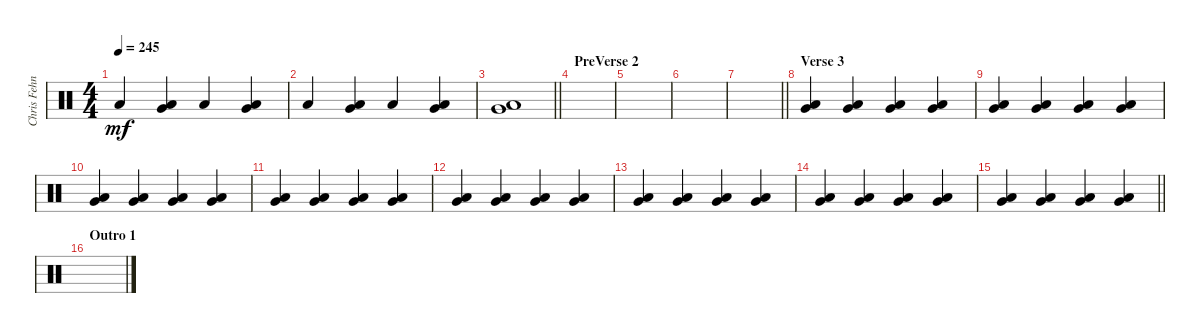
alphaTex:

\track ("Chris Fehn" "Chris Fehn") {instrument percussion}
\staff {score}
\articulation defaults
\ts (4 4)
\tempo 245
\clef neutral
\ks c "Low Floor Tom (hit)".4{dy mf}
("Very Low Tom (hit)" "Low Floor Tom (hit)").4 "Low Floor Tom (hit)".4 ("Very Low Tom (hit)" "Low Floor Tom (hit)").4 |
"Low Floor Tom (hit)".4 ("Very Low Tom (hit)" "Low Floor Tom (hit)").4 "Low Floor Tom (hit)".4 ("Very Low Tom (hit)" "Low Floor Tom (hit)").4 |
\barLineRight lightlight
("Very Low Tom (hit)" "Low Floor Tom (hit)").1 |
\section ("" "PreVerse 2")
|
|
|
\barLineRight lightlight
|
\section ("" "Verse 3")
("Very Low Tom (hit)" "Low Floor Tom (hit)").4 ("Very Low Tom (hit)" "Low Floor Tom (hit)").4 ("Very Low Tom (hit)" "Low Floor Tom (hit)").4 ("Very Low Tom (hit)" "Low Floor Tom (hit)").4 |
("Very Low Tom (hit)" "Low Floor Tom (hit)").4 ("Very Low Tom (hit)" "Low Floor Tom (hit)").4 ("Very Low Tom (hit)" "Low Floor Tom (hit)").4 ("Very Low Tom (hit)" "Low Floor Tom (hit)").4 |
("Very Low Tom (hit)" "Low Floor Tom (hit)").4 ("Very Low Tom (hit)" "Low Floor Tom (hit)").4 ("Very Low Tom (hit)" "Low Floor Tom (hit)").4 ("Very Low Tom (hit)" "Low Floor Tom (hit)").4 |
("Very Low Tom (hit)" "Low Floor Tom (hit)").4 ("Very Low Tom (hit)" "Low Floor Tom (hit)").4 ("Very Low Tom (hit)" "Low Floor Tom (hit)").4 ("Very Low Tom (hit)" "Low Floor Tom (hit)").4 |
("Very Low Tom (hit)" "Low Floor Tom (hit)").4 ("Very Low Tom (hit)" "Low Floor Tom (hit)").4 ("Very Low Tom (hit)" "Low Floor Tom (hit)").4 ("Very Low Tom (hit)" "Low Floor Tom (hit)").4 |
("Very Low Tom (hit)" "Low Floor Tom (hit)").4 ("Very Low Tom (hit)" "Low Floor Tom (hit)").4 ("Very Low Tom (hit)" "Low Floor Tom (hit)").4 ("Very Low Tom (hit)" "Low Floor Tom (hit)").4 |
("Very Low Tom (hit)" "Low Floor Tom (hit)").4 ("Very Low Tom (hit)" "Low Floor Tom (hit)").4 ("Very Low Tom (hit)" "Low Floor Tom (hit)").4 ("Very Low Tom (hit)" "Low Floor Tom (hit)").4 |
\barLineRight lightlight
("Very Low Tom (hit)" "Low Floor Tom (hit)").4 ("Very Low Tom (hit)" "Low Floor Tom (hit)").4 ("Very Low Tom (hit)" "Low Floor Tom (hit)").4 ("Very Low Tom (hit)" "Low Floor Tom (hit)").4 |
\section ("" "Outro 1")
